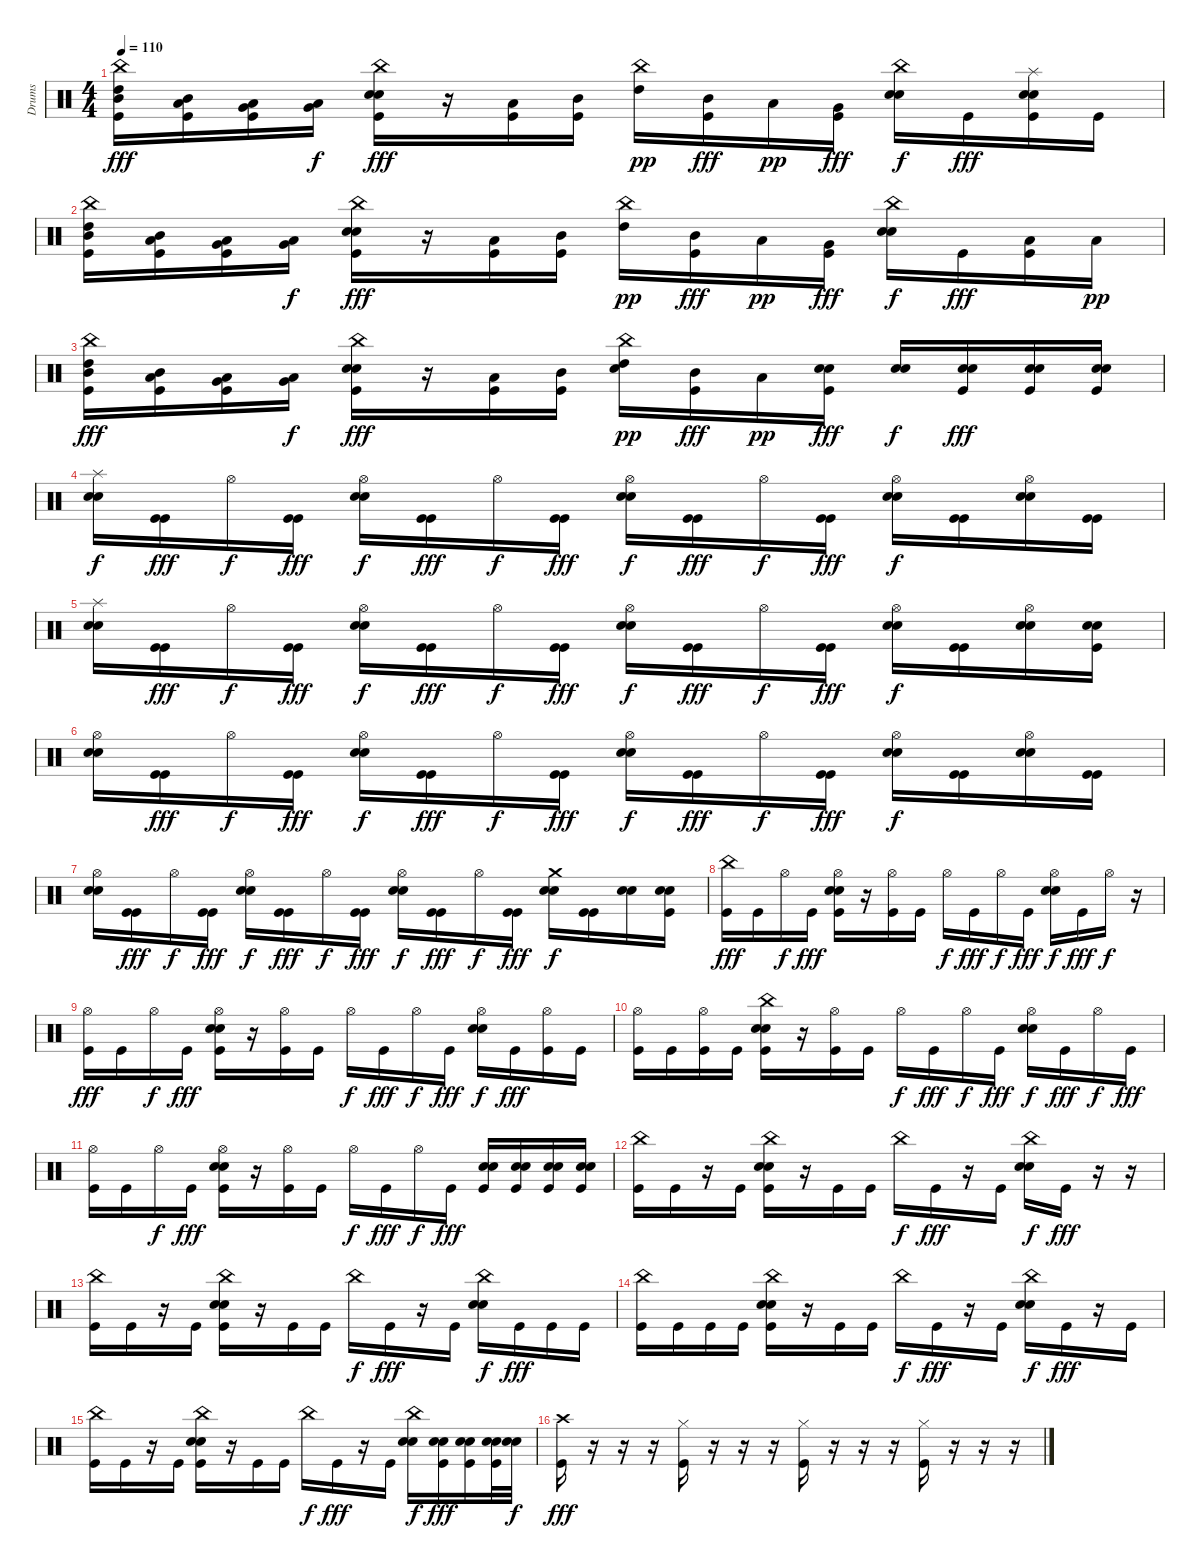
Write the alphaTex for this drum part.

\track ("Drums" "Drums") {instrument percussion}
\staff {score}
\articulation defaults
\ts (4 4)
\tempo 110
\clef neutral
\ks c
("China (hit)" "Mid Tom (hit)" "High Tom (hit)" "Kick (hit)").16{dy fff} ("Low Tom (hit)" "Mid Tom (hit)" "Kick (hit)").16 ("Very Low Tom (hit)" "Low Tom (hit)" "Kick (hit)").16 ("Low Floor Tom (hit)" "Very Low Tom (hit)").16{dy f} ("China (hit)" "Electric Snare (hit)" "Snare (hit) 2" "Kick (hit)").16{dy fff} r.16 ("Low Tom (hit)" "Kick (hit)").16 ("Mid Tom (hit)" "Kick (hit)").16 ("China (hit)" "High Tom (hit)").16{dy pp} ("Mid Tom (hit)" "Kick (hit)").16{dy fff} "Low Tom (hit)".16{dy pp} ("Very Low Tom (hit)" "Kick (hit)").16{dy fff} ("China (hit)" "Snare (hit) 2" "Electric Snare (hit)").16{dy f} "Kick (hit)".16{dy fff} ("Splash (hit)" "Snare (hit) 2" "Electric Snare (hit)" "Kick (hit)").16 "Kick (hit)".16 |
("China (hit)" "Mid Tom (hit)" "High Tom (hit)" "Kick (hit)").16 ("Low Tom (hit)" "Mid Tom (hit)" "Kick (hit)").16 ("Very Low Tom (hit)" "Low Tom (hit)" "Kick (hit)").16 ("Low Floor Tom (hit)" "Very Low Tom (hit)").16{dy f} ("China (hit)" "Electric Snare (hit)" "Snare (hit) 2" "Kick (hit)").16{dy fff} r.16 ("Low Tom (hit)" "Kick (hit)").16 ("Mid Tom (hit)" "Kick (hit)").16 ("China (hit)" "High Tom (hit)").16{dy pp} ("Mid Tom (hit)" "Kick (hit)").16{dy fff} "Low Tom (hit)".16{dy pp} ("Very Low Tom (hit)" "Kick (hit)").16{dy fff} ("China (hit)" "Snare (hit) 2" "Electric Snare (hit)").16{dy f} "Kick (hit)".16{dy fff} ("Low Tom (hit)" "Kick (hit)").16 "Low Tom (hit)".16{dy pp} |
("China (hit)" "Mid Tom (hit)" "High Tom (hit)" "Kick (hit)").16{dy fff} ("Low Tom (hit)" "Mid Tom (hit)" "Kick (hit)").16 ("Very Low Tom (hit)" "Low Tom (hit)" "Kick (hit)").16 ("Low Floor Tom (hit)" "Very Low Tom (hit)").16{dy f} ("China (hit)" "Electric Snare (hit)" "Snare (hit) 2" "Kick (hit)").16{dy fff} r.16 ("Low Tom (hit)" "Kick (hit)").16 ("Mid Tom (hit)" "Kick (hit)").16 ("China (hit)" "High Tom (hit)" "Snare (hit) 2").16{dy pp} ("Mid Tom (hit)" "Kick (hit)").16{dy fff} "Low Tom (hit)".16{dy pp} ("Snare (hit) 2" "Electric Snare (hit)" "Kick (hit)").16{dy fff} ("Snare (hit) 2" "Electric Snare (hit)").16{dy f} ("Snare (hit) 2" "Electric Snare (hit)" "Kick (hit)").16{dy fff} ("Snare (hit) 2" "Electric Snare (hit)" "Kick (hit)").16 ("Snare (hit) 2" "Electric Snare (hit)" "Kick (hit)").16 |
("Splash (hit)" "Snare (hit) 2" "Electric Snare (hit)").16{dy f} ("Kick (hit)" "Kick (hit)").16{dy fff} "Hi-Hat (open)".16{dy f} ("Kick (hit)" "Kick (hit)").16{dy fff} ("Hi-Hat (open)" "Snare (hit) 2" "Electric Snare (hit)").16{dy f} ("Kick (hit)" "Kick (hit)").16{dy fff} "Hi-Hat (open)".16{dy f} ("Kick (hit)" "Kick (hit)").16{dy fff} ("Hi-Hat (open)" "Snare (hit) 2" "Electric Snare (hit)").16{dy f} ("Kick (hit)" "Kick (hit)").16{dy fff} "Hi-Hat (open)".16{dy f} ("Kick (hit)" "Kick (hit)").16{dy fff} ("Hi-Hat (open)" "Snare (hit) 2" "Electric Snare (hit)").16{dy f} ("Kick (hit)" "Kick (hit)").16 ("Hi-Hat (open)" "Snare (hit) 2" "Electric Snare (hit)").16 ("Kick (hit)" "Kick (hit)").16 |
("Splash (hit)" "Snare (hit) 2" "Electric Snare (hit)").16 ("Kick (hit)" "Kick (hit)").16{dy fff} "Hi-Hat (open)".16{dy f} ("Kick (hit)" "Kick (hit)").16{dy fff} ("Hi-Hat (open)" "Snare (hit) 2" "Electric Snare (hit)").16{dy f} ("Kick (hit)" "Kick (hit)").16{dy fff} "Hi-Hat (open)".16{dy f} ("Kick (hit)" "Kick (hit)").16{dy fff} ("Hi-Hat (open)" "Snare (hit) 2" "Electric Snare (hit)").16{dy f} ("Kick (hit)" "Kick (hit)").16{dy fff} "Hi-Hat (open)".16{dy f} ("Kick (hit)" "Kick (hit)").16{dy fff} ("Hi-Hat (open)" "Snare (hit) 2" "Electric Snare (hit)").16{dy f} ("Kick (hit)" "Kick (hit)").16 ("Hi-Hat (open)" "Snare (hit) 2" "Electric Snare (hit)").16 ("Snare (hit) 2" "Electric Snare (hit)" "Kick (hit)").16 |
("Hi-Hat (open)" "Snare (hit) 2" "Electric Snare (hit)").16 ("Kick (hit)" "Kick (hit)").16{dy fff} "Hi-Hat (open)".16{dy f} ("Kick (hit)" "Kick (hit)").16{dy fff} ("Hi-Hat (open)" "Snare (hit) 2" "Electric Snare (hit)").16{dy f} ("Kick (hit)" "Kick (hit)").16{dy fff} "Hi-Hat (open)".16{dy f} ("Kick (hit)" "Kick (hit)").16{dy fff} ("Hi-Hat (open)" "Snare (hit) 2" "Electric Snare (hit)").16{dy f} ("Kick (hit)" "Kick (hit)").16{dy fff} "Hi-Hat (open)".16{dy f} ("Kick (hit)" "Kick (hit)").16{dy fff} ("Hi-Hat (open)" "Snare (hit) 2" "Electric Snare (hit)").16{dy f} ("Kick (hit)" "Kick (hit)").16 ("Hi-Hat (open)" "Snare (hit) 2" "Electric Snare (hit)").16 ("Kick (hit)" "Kick (hit)").16 |
("Hi-Hat (open)" "Snare (hit) 2" "Electric Snare (hit)").16 ("Kick (hit)" "Kick (hit)").16{dy fff} "Hi-Hat (open)".16{dy f} ("Kick (hit)" "Kick (hit)").16{dy fff} ("Hi-Hat (open)" "Snare (hit) 2" "Electric Snare (hit)").16{dy f} ("Kick (hit)" "Kick (hit)").16{dy fff} "Hi-Hat (open)".16{dy f} ("Kick (hit)" "Kick (hit)").16{dy fff} ("Hi-Hat (open)" "Snare (hit) 2" "Electric Snare (hit)").16{dy f} ("Kick (hit)" "Kick (hit)").16{dy fff} "Hi-Hat (open)".16{dy f} ("Kick (hit)" "Kick (hit)").16{dy fff} ("Crash medium (hit)" "Snare (hit) 2" "Electric Snare (hit)").16{dy f} ("Kick (hit)" "Kick (hit)").16 ("Snare (hit) 2" "Electric Snare (hit)").16 ("Snare (hit) 2" "Electric Snare (hit)" "Kick (hit)").16 |
("China (hit)" "Kick (hit)").16{dy fff} "Kick (hit)".16 "Hi-Hat (open)".16{dy f} "Kick (hit)".16{dy fff} ("Hi-Hat (open)" "Electric Snare (hit)" "Snare (hit) 2" "Kick (hit)").16 r.16 ("Hi-Hat (open)" "Kick (hit)").16 "Kick (hit)".16 "Hi-Hat (open)".16{dy f} "Kick (hit)".16{dy fff} "Hi-Hat (open)".16{dy f} "Kick (hit)".16{dy fff} ("Hi-Hat (open)" "Snare (hit) 2" "Electric Snare (hit)").16{dy f} "Kick (hit)".16{dy fff} "Hi-Hat (open)".16{dy f} r.16 |
("Hi-Hat (open)" "Kick (hit)").16{dy fff} "Kick (hit)".16 "Hi-Hat (open)".16{dy f} "Kick (hit)".16{dy fff} ("Hi-Hat (open)" "Electric Snare (hit)" "Snare (hit) 2" "Kick (hit)").16 r.16 ("Hi-Hat (open)" "Kick (hit)").16 "Kick (hit)".16 "Hi-Hat (open)".16{dy f} "Kick (hit)".16{dy fff} "Hi-Hat (open)".16{dy f} "Kick (hit)".16{dy fff} ("Hi-Hat (open)" "Snare (hit) 2" "Electric Snare (hit)").16{dy f} "Kick (hit)".16{dy fff} ("Hi-Hat (open)" "Kick (hit)").16 "Kick (hit)".16 |
("Hi-Hat (open)" "Kick (hit)").16 "Kick (hit)".16 ("Hi-Hat (open)" "Kick (hit)").16 "Kick (hit)".16 ("China (hit)" "Electric Snare (hit)" "Snare (hit) 2" "Kick (hit)").16 r.16 ("Hi-Hat (open)" "Kick (hit)").16 "Kick (hit)".16 "Hi-Hat (open)".16{dy f} "Kick (hit)".16{dy fff} "Hi-Hat (open)".16{dy f} "Kick (hit)".16{dy fff} ("Hi-Hat (open)" "Snare (hit) 2" "Electric Snare (hit)").16{dy f} "Kick (hit)".16{dy fff} "Hi-Hat (open)".16{dy f} "Kick (hit)".16{dy fff} |
("Hi-Hat (open)" "Kick (hit)").16 "Kick (hit)".16 "Hi-Hat (open)".16{dy f} "Kick (hit)".16{dy fff} ("Hi-Hat (open)" "Electric Snare (hit)" "Snare (hit) 2" "Kick (hit)").16 r.16 ("Hi-Hat (open)" "Kick (hit)").16 "Kick (hit)".16 "Hi-Hat (open)".16{dy f} "Kick (hit)".16{dy fff} "Hi-Hat (open)".16{dy f} "Kick (hit)".16{dy fff} ("Snare (hit) 2" "Electric Snare (hit)" "Kick (hit)").16 ("Snare (hit) 2" "Electric Snare (hit)" "Kick (hit)").16 ("Snare (hit) 2" "Electric Snare (hit)" "Kick (hit)").16 ("Snare (hit) 2" "Electric Snare (hit)" "Kick (hit)").16 |
("China (hit)" "Kick (hit)").16 "Kick (hit)".16 r.16 "Kick (hit)".16 ("China (hit)" "Electric Snare (hit)" "Snare (hit) 2" "Kick (hit)").16 r.16 "Kick (hit)".16 "Kick (hit)".16 "China (hit)".16{dy f} "Kick (hit)".16{dy fff} r.16 "Kick (hit)".16 ("China (hit)" "Snare (hit) 2" "Electric Snare (hit)").16{dy f} "Kick (hit)".16{dy fff} r.16 r.16 |
("China (hit)" "Kick (hit)").16 "Kick (hit)".16 r.16 "Kick (hit)".16 ("China (hit)" "Electric Snare (hit)" "Snare (hit) 2" "Kick (hit)").16 r.16 "Kick (hit)".16 "Kick (hit)".16 "China (hit)".16{dy f} "Kick (hit)".16{dy fff} r.16 "Kick (hit)".16 ("China (hit)" "Snare (hit) 2" "Electric Snare (hit)").16{dy f} "Kick (hit)".16{dy fff} "Kick (hit)".16 "Kick (hit)".16 |
("China (hit)" "Kick (hit)").16 "Kick (hit)".16 "Kick (hit)".16 "Kick (hit)".16 ("China (hit)" "Electric Snare (hit)" "Snare (hit) 2" "Kick (hit)").16 r.16 "Kick (hit)".16 "Kick (hit)".16 "China (hit)".16{dy f} "Kick (hit)".16{dy fff} r.16 "Kick (hit)".16 ("China (hit)" "Snare (hit) 2" "Electric Snare (hit)").16{dy f} "Kick (hit)".16{dy fff} r.16 "Kick (hit)".16 |
("China (hit)" "Kick (hit)").16 "Kick (hit)".16 r.16 "Kick (hit)".16 ("China (hit)" "Electric Snare (hit)" "Snare (hit) 2" "Kick (hit)").16 r.16 "Kick (hit)".16 "Kick (hit)".16 "China (hit)".16{dy f} "Kick (hit)".16{dy fff} r.16 "Kick (hit)".16 ("China (hit)" "Snare (hit) 2" "Electric Snare (hit)").16{dy f} ("Snare (hit) 2" "Electric Snare (hit)" "Kick (hit)").16{dy fff} ("Snare (hit) 2" "Electric Snare (hit)" "Kick (hit)").16 ("Snare (hit) 2" "Electric Snare (hit)" "Kick (hit)").32 ("Snare (hit) 2" "Electric Snare (hit)").32{dy f} |
("Crash high (hit)" "Kick (hit)").16{dy fff} r.16 r.16 r.16 ("Hi-Hat (closed)" "Kick (hit)").16 r.16 r.16 r.16 ("Hi-Hat (closed)" "Kick (hit)").16 r.16 r.16 r.16 ("Hi-Hat (closed)" "Kick (hit)").16 r.16 r.16 r.16
